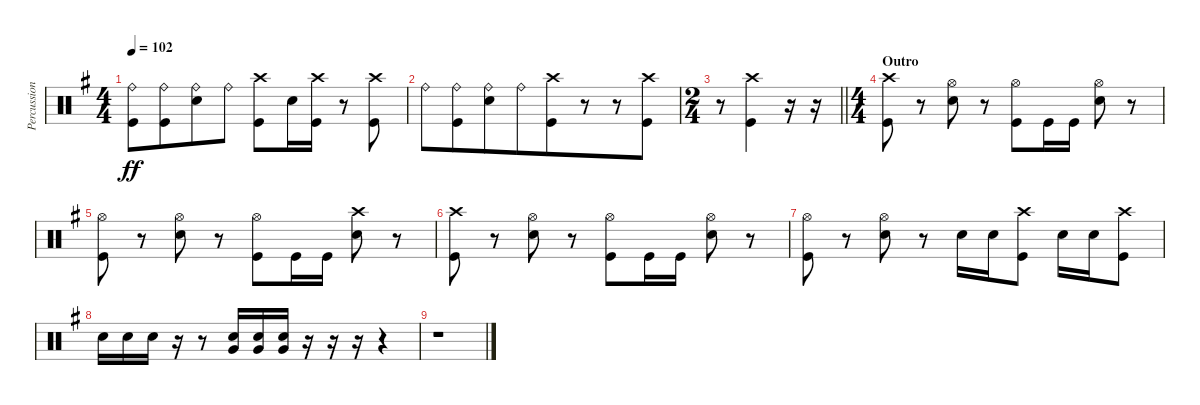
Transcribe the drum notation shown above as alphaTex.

\track ("Percussion" "Percussion") {instrument percussion}
\staff {score}
\articulation defaults
\ts (4 4)
\tempo 102
\clef neutral
\ks g
("Ride (bell)" "Kick (hit)").8{dy ff} ("Ride (bell)" "Kick (hit)").8{beam merge} ("Ride (bell)" "Electric Snare (hit)").8{beam merge} "Ride (bell)".8 ("Kick (hit)" "Crash high (hit)").8{beam merge} "Electric Snare (hit)".16{beam merge} ("Kick (hit)" "Crash high (hit)").16 r.8 ("Kick (hit)" "Crash high (hit)").8 |
"Ride (bell)".8 ("Ride (bell)" "Kick (hit)").8{beam merge} ("Ride (bell)" "Electric Snare (hit)").8{beam merge} "Ride (bell)".8{beam merge} ("Kick (hit)" "Crash high (hit)").8{beam merge} r.8 r.8{beam merge} ("Kick (hit)" "Crash high (hit)").8 |
\ts (2 4)
\barLineRight lightlight
r.8{beam merge} ("Kick (hit)" "Crash high (hit)").4{beam merge} r.16 r.16 |
\ts (4 4)
\section ("" "Outro")
("Kick (hit)" "Crash high (hit)").8 r.8 ("Electric Snare (hit)" "Hi-Hat (open)").8 r.8{beam merge} ("Kick (hit)" "Hi-Hat (open)").8 "Kick (hit)".16 "Kick (hit)".16 ("Electric Snare (hit)" "Hi-Hat (open)").8 r.8 |
("Kick (hit)" "Hi-Hat (open)").8 r.8 ("Electric Snare (hit)" "Hi-Hat (open)").8 r.8{beam merge} ("Kick (hit)" "Hi-Hat (open)").8 "Kick (hit)".16 "Kick (hit)".16 ("Electric Snare (hit)" "Crash high (hit)").8 r.8 |
("Kick (hit)" "Crash high (hit)").8 r.8 ("Electric Snare (hit)" "Hi-Hat (open)").8 r.8{beam merge} ("Kick (hit)" "Hi-Hat (open)").8 "Kick (hit)".16 "Kick (hit)".16 ("Electric Snare (hit)" "Hi-Hat (open)").8 r.8 |
("Kick (hit)" "Hi-Hat (open)").8 r.8 ("Electric Snare (hit)" "Hi-Hat (open)").8 r.8 "Electric Snare (hit)".16 "Electric Snare (hit)".16 ("Kick (hit)" "Crash high (hit)").8 "Electric Snare (hit)".16 "Electric Snare (hit)".16 ("Kick (hit)" "Crash high (hit)").8 |
"Electric Snare (hit)".16 "Electric Snare (hit)".16 "Electric Snare (hit)".16 r.16 r.8 ("Electric Snare (hit)" "Very Low Tom (hit)").16{beam merge} ("Electric Snare (hit)" "Very Low Tom (hit)").16{beam merge} ("Electric Snare (hit)" "Very Low Tom (hit)").16 r.16{beam merge} r.16 r.16 r.4 |
r.1
